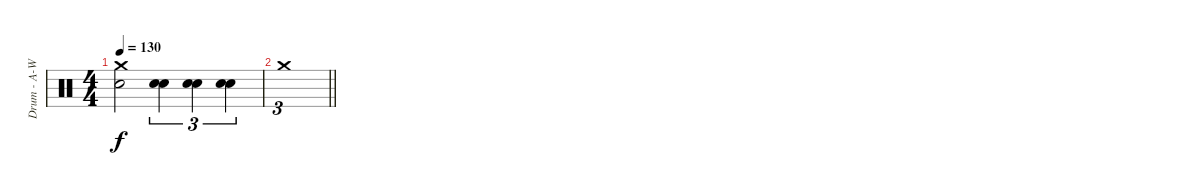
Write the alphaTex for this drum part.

\track ("Drum - A-Word" "Drum - A-W") {instrument percussion}
\staff {score}
\articulation defaults
\ts (4 4)
\tempo 130
\clef neutral
\ks c
("Snare (hit) 2" "Crash medium (hit)").2{dy f} ("Snare (hit) 2" "Snare (hit) 2").4{tu (3 2)} ("Snare (hit) 2" "Snare (hit) 2").4{tu (3 2)} ("Snare (hit) 2" "Snare (hit) 2").4{tu (3 2)} |
\barLineRight lightlight "Crash medium (hit)".1{tu (3 2)}
